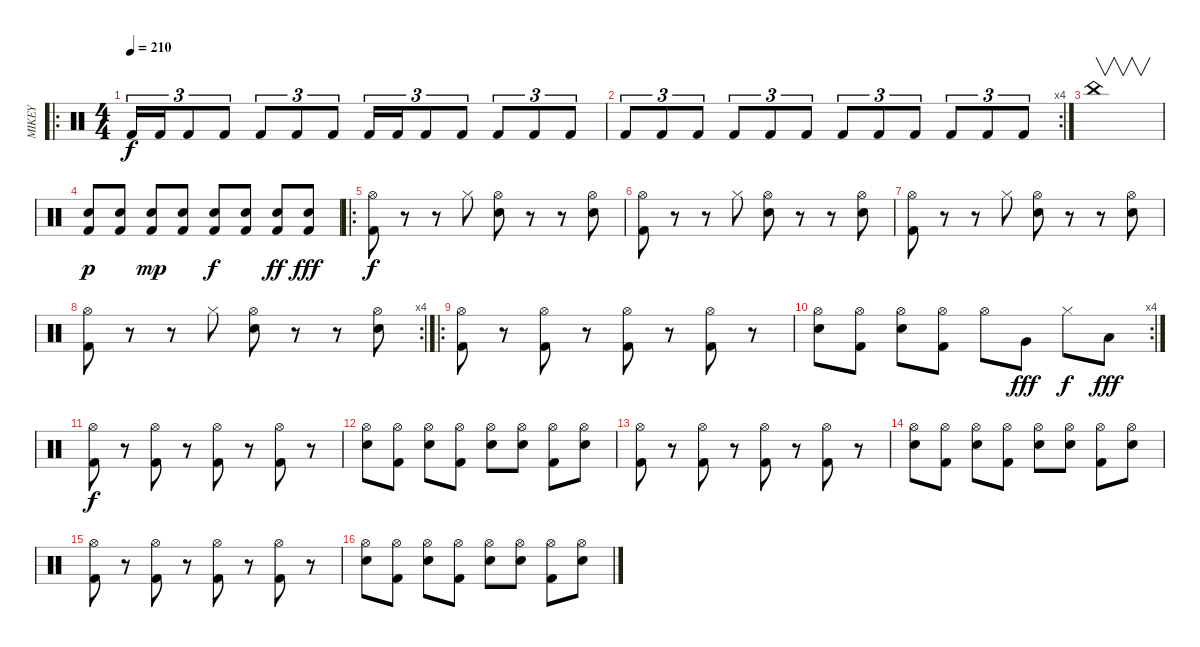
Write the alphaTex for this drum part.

\track ("MIKEY" "MIKEY") {instrument percussion}
\staff {score}
\articulation defaults
\ro
\ts (4 4)
\tempo 210
\clef neutral
\ks c "Kick (hit) 2".16{tu (3 2) dy f} "Kick (hit) 2".16{tu (3 2)} "Kick (hit) 2".8{tu (3 2)} "Kick (hit) 2".8{tu (3 2)} "Kick (hit) 2".8{tu (3 2)} "Kick (hit) 2".8{tu (3 2)} "Kick (hit) 2".8{tu (3 2)} "Kick (hit) 2".16{tu (3 2)} "Kick (hit) 2".16{tu (3 2)} "Kick (hit) 2".8{tu (3 2)} "Kick (hit) 2".8{tu (3 2)} "Kick (hit) 2".8{tu (3 2)} "Kick (hit) 2".8{tu (3 2)} "Kick (hit) 2".8{tu (3 2)}
|
\rc 4 "Kick (hit) 2".8{tu (3 2)} "Kick (hit) 2".8{tu (3 2)} "Kick (hit) 2".8{tu (3 2)} "Kick (hit) 2".8{tu (3 2)} "Kick (hit) 2".8{tu (3 2)} "Kick (hit) 2".8{tu (3 2)} "Kick (hit) 2".8{tu (3 2)} "Kick (hit) 2".8{tu (3 2)} "Kick (hit) 2".8{tu (3 2)} "Kick (hit) 2".8{tu (3 2)} "Kick (hit) 2".8{tu (3 2)} "Kick (hit) 2".8{tu (3 2)}
|
"China (hit)".1{v} |
("Snare (hit) 2" "Kick (hit) 2").8{dy p} ("Snare (hit) 2" "Kick (hit) 2").8 ("Snare (hit) 2" "Kick (hit) 2").8{dy mp} ("Snare (hit) 2" "Kick (hit) 2").8 ("Snare (hit) 2" "Kick (hit) 2").8{dy f} ("Snare (hit) 2" "Kick (hit) 2").8 ("Snare (hit) 2" "Kick (hit) 2").8{dy ff} ("Snare (hit) 2" "Kick (hit) 2").8{dy fff} |
\ro
("Hi-Hat (open)" "Kick (hit) 2").8{dy f} r.8 r.8 "Hi-Hat (closed)".8 ("Hi-Hat (open)" "Snare (hit) 2").8 r.8 r.8 ("Hi-Hat (open)" "Snare (hit) 2").8 |
("Hi-Hat (open)" "Kick (hit) 2").8 r.8 r.8 "Hi-Hat (closed)".8 ("Hi-Hat (open)" "Snare (hit) 2").8 r.8 r.8 ("Hi-Hat (open)" "Snare (hit) 2").8 |
("Hi-Hat (open)" "Kick (hit) 2").8 r.8 r.8 "Hi-Hat (closed)".8 ("Hi-Hat (open)" "Snare (hit) 2").8 r.8 r.8 ("Hi-Hat (open)" "Snare (hit) 2").8 |
\rc 4
("Hi-Hat (open)" "Kick (hit) 2").8 r.8 r.8 "Hi-Hat (closed)".8 ("Hi-Hat (open)" "Snare (hit) 2").8 r.8 r.8 ("Hi-Hat (open)" "Snare (hit) 2").8 |
\ro
("Kick (hit) 2" "Hi-Hat (open)").8 r.8 ("Kick (hit) 2" "Hi-Hat (open)").8 r.8 ("Kick (hit) 2" "Hi-Hat (open)").8 r.8 ("Kick (hit) 2" "Hi-Hat (open)").8 r.8 |
\rc 4
("Snare (hit) 2" "Hi-Hat (open)").8 ("Kick (hit) 2" "Hi-Hat (open)").8 ("Snare (hit) 2" "Hi-Hat (open)").8 ("Kick (hit) 2" "Hi-Hat (open)").8 "Hi-Hat (open)".8 "Very Low Tom (hit)".8{dy fff} "Hi-Hat (closed)".8{dy f} "Low Tom (hit)".8{dy fff} |
("Kick (hit) 2" "Hi-Hat (open)").8{dy f} r.8 ("Kick (hit) 2" "Hi-Hat (open)").8 r.8 ("Kick (hit) 2" "Hi-Hat (open)").8 r.8 ("Kick (hit) 2" "Hi-Hat (open)").8 r.8 |
("Snare (hit) 2" "Hi-Hat (open)").8 ("Kick (hit) 2" "Hi-Hat (open)").8 ("Snare (hit) 2" "Hi-Hat (open)").8 ("Kick (hit) 2" "Hi-Hat (open)").8 ("Snare (hit) 2" "Hi-Hat (open)").8 ("Snare (hit) 2" "Hi-Hat (open)").8 ("Kick (hit) 2" "Hi-Hat (open)").8 ("Snare (hit) 2" "Hi-Hat (open)").8 |
("Kick (hit) 2" "Hi-Hat (open)").8 r.8 ("Kick (hit) 2" "Hi-Hat (open)").8 r.8 ("Kick (hit) 2" "Hi-Hat (open)").8 r.8 ("Kick (hit) 2" "Hi-Hat (open)").8 r.8 |
("Snare (hit) 2" "Hi-Hat (open)").8 ("Kick (hit) 2" "Hi-Hat (open)").8 ("Snare (hit) 2" "Hi-Hat (open)").8 ("Kick (hit) 2" "Hi-Hat (open)").8 ("Snare (hit) 2" "Hi-Hat (open)").8 ("Snare (hit) 2" "Hi-Hat (open)").8 ("Kick (hit) 2" "Hi-Hat (open)").8 ("Snare (hit) 2" "Hi-Hat (open)").8 |
("Kick (hit) 2" "Hi-Hat (open)").8 r.8 ("Kick (hit) 2" "Hi-Hat (open)").8 r.8 ("Kick (hit) 2" "Hi-Hat (open)").8 r.8 ("Kick (hit) 2" "Hi-Hat (open)").8 r.8 |
("Snare (hit) 2" "Hi-Hat (open)").8 ("Kick (hit) 2" "Hi-Hat (open)").8 ("Snare (hit) 2" "Hi-Hat (open)").8 ("Kick (hit) 2" "Hi-Hat (open)").8 ("Snare (hit) 2" "Hi-Hat (open)").8 ("Snare (hit) 2" "Hi-Hat (open)").8 ("Kick (hit) 2" "Hi-Hat (open)").8 ("Snare (hit) 2" "Hi-Hat (open)").8
